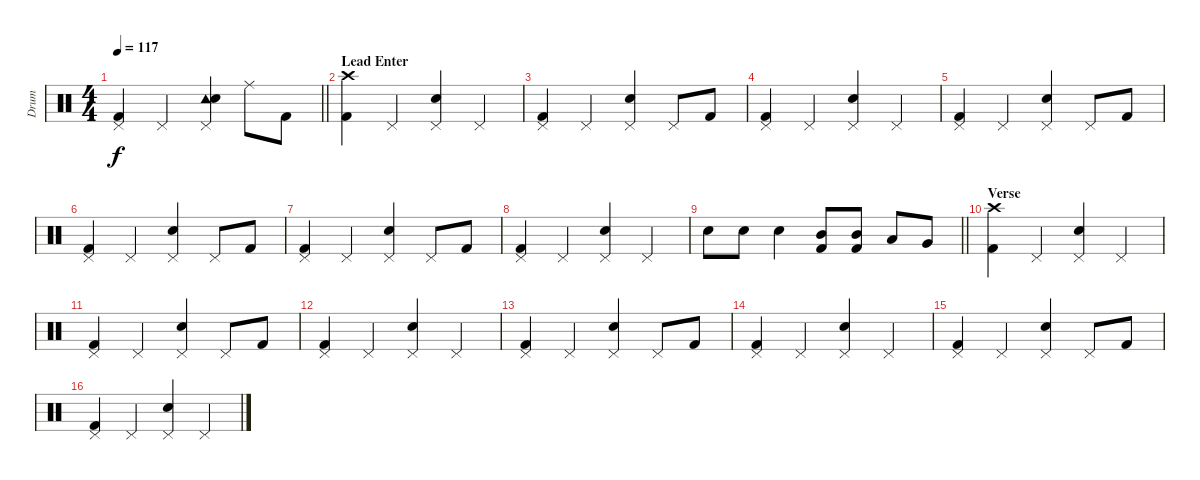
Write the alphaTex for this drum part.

\track ("Drum" "Drum") {instrument percussion}
\staff {score}
\articulation defaults
\ts (4 4)
\tempo 117
\clef neutral
\barLineRight lightlight
\ks c
("Pedal Hi-Hat (hit)" "Kick (hit) 2").4{dy f} "Pedal Hi-Hat (hit)".4 ("Pedal Hi-Hat (hit)" "Tambourine (hit)" "Electric Snare (hit)").4 "Ride (middle)".8 "Kick (hit) 2".8 |
\section ("" "Lead Enter")
("Crash high (hit)" "Kick (hit) 2").4 "Pedal Hi-Hat (hit)".4 ("Pedal Hi-Hat (hit)" "Electric Snare (hit)").4 "Pedal Hi-Hat (hit)".4 |
("Pedal Hi-Hat (hit)" "Kick (hit) 2").4 "Pedal Hi-Hat (hit)".4 ("Pedal Hi-Hat (hit)" "Electric Snare (hit)").4 "Pedal Hi-Hat (hit)".8 "Kick (hit) 2".8 |
("Pedal Hi-Hat (hit)" "Kick (hit) 2").4 "Pedal Hi-Hat (hit)".4 ("Pedal Hi-Hat (hit)" "Electric Snare (hit)").4 "Pedal Hi-Hat (hit)".4 |
("Pedal Hi-Hat (hit)" "Kick (hit) 2").4 "Pedal Hi-Hat (hit)".4 ("Pedal Hi-Hat (hit)" "Electric Snare (hit)").4 "Pedal Hi-Hat (hit)".8 "Kick (hit) 2".8 |
("Pedal Hi-Hat (hit)" "Kick (hit) 2").4 "Pedal Hi-Hat (hit)".4 ("Pedal Hi-Hat (hit)" "Electric Snare (hit)").4 "Pedal Hi-Hat (hit)".8 "Kick (hit) 2".8 |
("Pedal Hi-Hat (hit)" "Kick (hit) 2").4 "Pedal Hi-Hat (hit)".4 ("Pedal Hi-Hat (hit)" "Electric Snare (hit)").4 "Pedal Hi-Hat (hit)".8 "Kick (hit) 2".8 |
("Pedal Hi-Hat (hit)" "Kick (hit) 2").4 "Pedal Hi-Hat (hit)".4 ("Pedal Hi-Hat (hit)" "Electric Snare (hit)").4 "Pedal Hi-Hat (hit)".4 |
\barLineRight lightlight "Electric Snare (hit)".8 "Electric Snare (hit)".8 "Electric Snare (hit)".4
("Mid Tom (hit)" "Kick (hit) 2").8 ("Mid Tom (hit)" "Kick (hit) 2").8 "Low Tom (hit)".8 "Very Low Tom (hit)".8 |
\section ("" "Verse")
("Crash high (hit)" "Kick (hit) 2").4 "Pedal Hi-Hat (hit)".4 ("Pedal Hi-Hat (hit)" "Electric Snare (hit)").4 "Pedal Hi-Hat (hit)".4 |
("Pedal Hi-Hat (hit)" "Kick (hit) 2").4 "Pedal Hi-Hat (hit)".4 ("Pedal Hi-Hat (hit)" "Electric Snare (hit)").4 "Pedal Hi-Hat (hit)".8 "Kick (hit) 2".8 |
("Pedal Hi-Hat (hit)" "Kick (hit) 2").4 "Pedal Hi-Hat (hit)".4 ("Pedal Hi-Hat (hit)" "Electric Snare (hit)").4 "Pedal Hi-Hat (hit)".4 |
("Pedal Hi-Hat (hit)" "Kick (hit) 2").4 "Pedal Hi-Hat (hit)".4 ("Pedal Hi-Hat (hit)" "Electric Snare (hit)").4 "Pedal Hi-Hat (hit)".8 "Kick (hit) 2".8 |
("Pedal Hi-Hat (hit)" "Kick (hit) 2").4 "Pedal Hi-Hat (hit)".4 ("Pedal Hi-Hat (hit)" "Electric Snare (hit)").4 "Pedal Hi-Hat (hit)".4 |
("Pedal Hi-Hat (hit)" "Kick (hit) 2").4 "Pedal Hi-Hat (hit)".4 ("Pedal Hi-Hat (hit)" "Electric Snare (hit)").4 "Pedal Hi-Hat (hit)".8 "Kick (hit) 2".8 |
("Pedal Hi-Hat (hit)" "Kick (hit) 2").4 "Pedal Hi-Hat (hit)".4 ("Pedal Hi-Hat (hit)" "Electric Snare (hit)").4 "Pedal Hi-Hat (hit)".4
